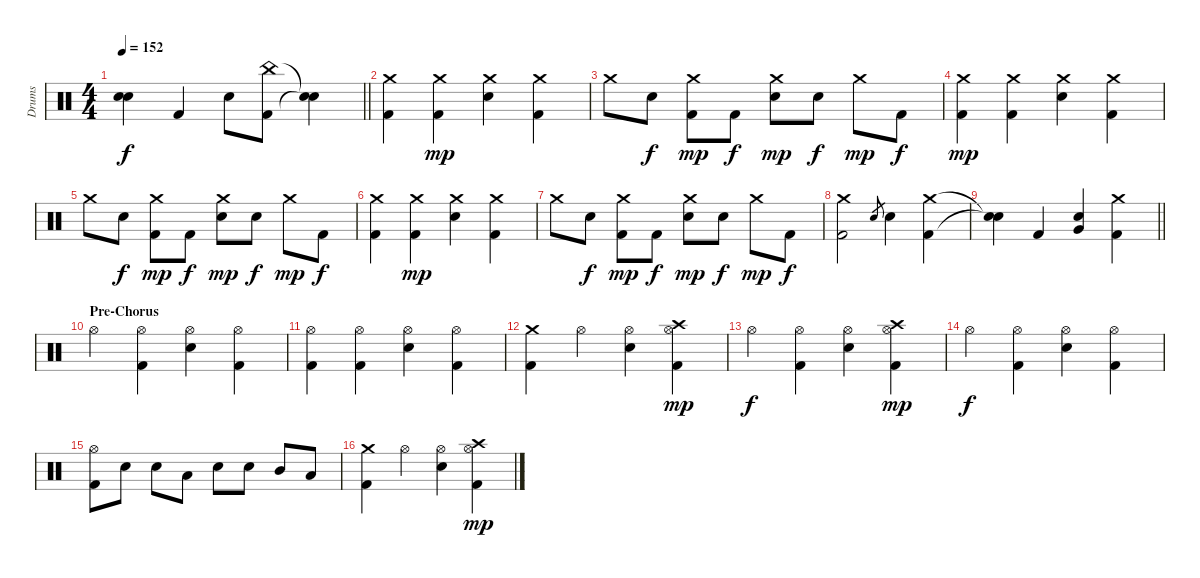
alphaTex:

\track ("Drums" "Drums") {instrument percussion}
\staff {score}
\articulation defaults
\ts (4 4)
\tempo 152
\clef neutral
\barLineRight lightlight
\ks c
("Snare (hit)"{t} "Snare (hit)"{t}).4{dy f} "Kick (hit) 2".4 "Snare (hit) 2".8 ("China (hit)" "Kick (hit) 2").8 ("Snare (hit)"{t} "Snare (hit)"{t}).4 |
\section ("" "")
("Crash medium (hit)" "Kick (hit) 2").4 ("Crash medium (hit)" "Kick (hit) 2").4{dy mp} ("Crash medium (hit)" "Snare (hit) 2").4 ("Crash medium (hit)" "Kick (hit) 2").4 |
"Crash medium (hit)".8 "Snare (hit) 2".8{dy f} ("Crash medium (hit)" "Kick (hit) 2").8{dy mp} "Kick (hit) 2".8{dy f} ("Crash medium (hit)" "Snare (hit) 2").8{dy mp} "Snare (hit) 2".8{dy f} "Crash medium (hit)".8{dy mp} "Kick (hit) 2".8{dy f} |
("Crash medium (hit)" "Kick (hit) 2").4{dy mp} ("Crash medium (hit)" "Kick (hit) 2").4 ("Crash medium (hit)" "Snare (hit) 2").4 ("Crash medium (hit)" "Kick (hit) 2").4 |
"Crash medium (hit)".8 "Snare (hit) 2".8{dy f} ("Crash medium (hit)" "Kick (hit) 2").8{dy mp} "Kick (hit) 2".8{dy f} ("Crash medium (hit)" "Snare (hit) 2").8{dy mp} "Snare (hit) 2".8{dy f} "Crash medium (hit)".8{dy mp} "Kick (hit) 2".8{dy f} |
("Crash medium (hit)" "Kick (hit) 2").4 ("Crash medium (hit)" "Kick (hit) 2").4{dy mp} ("Crash medium (hit)" "Snare (hit) 2").4 ("Crash medium (hit)" "Kick (hit) 2").4 |
"Crash medium (hit)".8 "Snare (hit) 2".8{dy f} ("Crash medium (hit)" "Kick (hit) 2").8{dy mp} "Kick (hit) 2".8{dy f} ("Crash medium (hit)" "Snare (hit) 2").8{dy mp} "Snare (hit) 2".8{dy f} "Crash medium (hit)".8{dy mp} "Kick (hit) 2".8{dy f} |
("Crash medium (hit)" "Kick (hit) 2").2 "Snare (hit) 2".8{gr} "Snare (hit) 2".4 ("Crash medium (hit)" "Kick (hit) 2").4 |
\barLineRight lightlight
("Snare (hit)"{t} "Snare (hit)"{t}).4 "Kick (hit) 2".4 ("Snare (hit) 2" "Very Low Tom (hit)").4 ("Crash medium (hit)" "Kick (hit) 2").4 |
\section ("" "Pre-Chorus")
"Hi-Hat (open)".4 ("Hi-Hat (open)" "Kick (hit) 2").4 ("Hi-Hat (open)" "Snare (hit) 2").4 ("Hi-Hat (open)" "Kick (hit) 2").4 |
("Hi-Hat (open)" "Kick (hit) 2").4 ("Hi-Hat (open)" "Kick (hit) 2").4 ("Hi-Hat (open)" "Snare (hit) 2").4 ("Hi-Hat (open)" "Kick (hit) 2").4 |
("Crash medium (hit)" "Kick (hit) 2").4 "Hi-Hat (open)".4 ("Hi-Hat (open)" "Snare (hit) 2").4 ("Crash high (hit)" "Hi-Hat (open)" "Kick (hit) 2").4{dy mp} |
"Hi-Hat (open)".4{dy f} ("Hi-Hat (open)" "Kick (hit) 2").4 ("Hi-Hat (open)" "Snare (hit) 2").4 ("Crash high (hit)" "Hi-Hat (open)" "Kick (hit) 2").4{dy mp} |
"Hi-Hat (open)".4{dy f} ("Hi-Hat (open)" "Kick (hit) 2").4 ("Hi-Hat (open)" "Snare (hit) 2").4 ("Hi-Hat (open)" "Kick (hit) 2").4 |
("Hi-Hat (open)" "Kick (hit) 2").8 "Snare (hit) 2".8 "Snare (hit) 2".8 "Low Tom (hit)".8 "Snare (hit) 2".8 "Snare (hit) 2".8 "Mid Tom (hit)".8 "Low Tom (hit)".8 |
("Crash medium (hit)" "Kick (hit) 2").4 "Hi-Hat (open)".4 ("Hi-Hat (open)" "Snare (hit) 2").4 ("Crash high (hit)" "Hi-Hat (open)" "Kick (hit) 2").4{dy mp}
